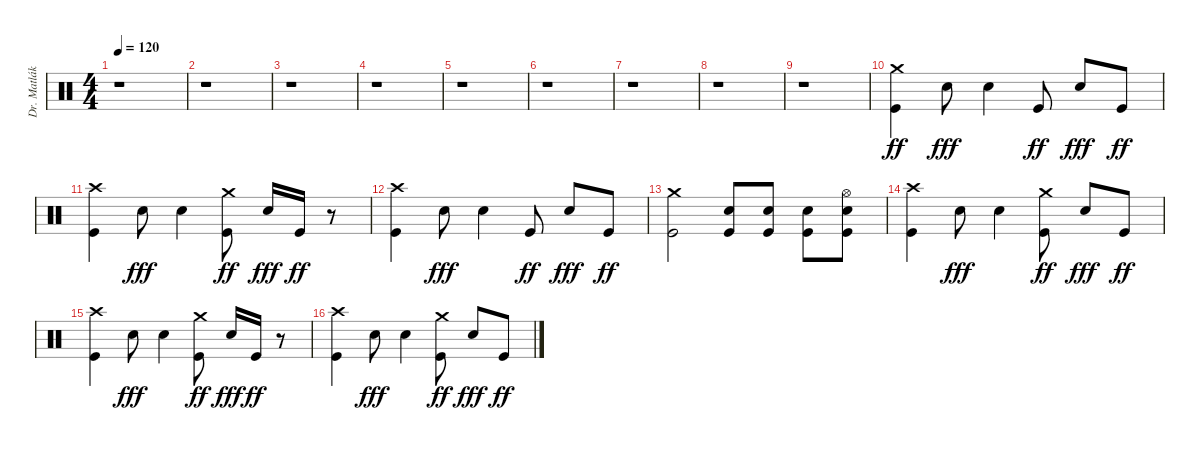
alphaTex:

\track ("Dr. Matlák" "Dr. Matlák") {instrument percussion}
\staff {score}
\articulation defaults
\ts (4 4)
\tempo 120
\clef neutral
\ks c
r.1{dy ff} |
r.1 |
r.1 |
r.1 |
r.1 |
r.1 |
r.1 |
r.1 |
r.1 |
("Crash medium (hit)" "Kick (hit)").4 "Electric Snare (hit)".8{dy fff} "Electric Snare (hit)".4 "Kick (hit)".8{dy ff} "Electric Snare (hit)".8{dy fff} "Kick (hit)".8{dy ff} |
("Crash high (hit)" "Kick (hit)").4 "Electric Snare (hit)".8{dy fff} "Electric Snare (hit)".4 ("Crash medium (hit)" "Kick (hit)").8{dy ff} "Electric Snare (hit)".16{dy fff} "Kick (hit)".16{dy ff} r.8 |
("Crash high (hit)" "Kick (hit)").4 "Electric Snare (hit)".8{dy fff} "Electric Snare (hit)".4 "Kick (hit)".8{dy ff} "Electric Snare (hit)".8{dy fff} "Kick (hit)".8{dy ff} |
("Crash medium (hit)" "Kick (hit)").2 ("Electric Snare (hit)" "Kick (hit)").8 ("Electric Snare (hit)" "Kick (hit)").8 ("Electric Snare (hit)" "Kick (hit)").8 ("Hi-Hat (open)" "Electric Snare (hit)" "Kick (hit)").8 |
("Crash high (hit)" "Kick (hit)").4 "Electric Snare (hit)".8{dy fff} "Electric Snare (hit)".4 ("Crash medium (hit)" "Kick (hit)").8{dy ff} "Electric Snare (hit)".8{dy fff} "Kick (hit)".8{dy ff} |
("Crash high (hit)" "Kick (hit)").4 "Electric Snare (hit)".8{dy fff} "Electric Snare (hit)".4 ("Crash medium (hit)" "Kick (hit)").8{dy ff} "Electric Snare (hit)".16{dy fff} "Kick (hit)".16{dy ff} r.8 |
("Crash high (hit)" "Kick (hit)").4 "Electric Snare (hit)".8{dy fff} "Electric Snare (hit)".4 ("Crash medium (hit)" "Kick (hit)").8{dy ff} "Electric Snare (hit)".8{dy fff} "Kick (hit)".8{dy ff}
